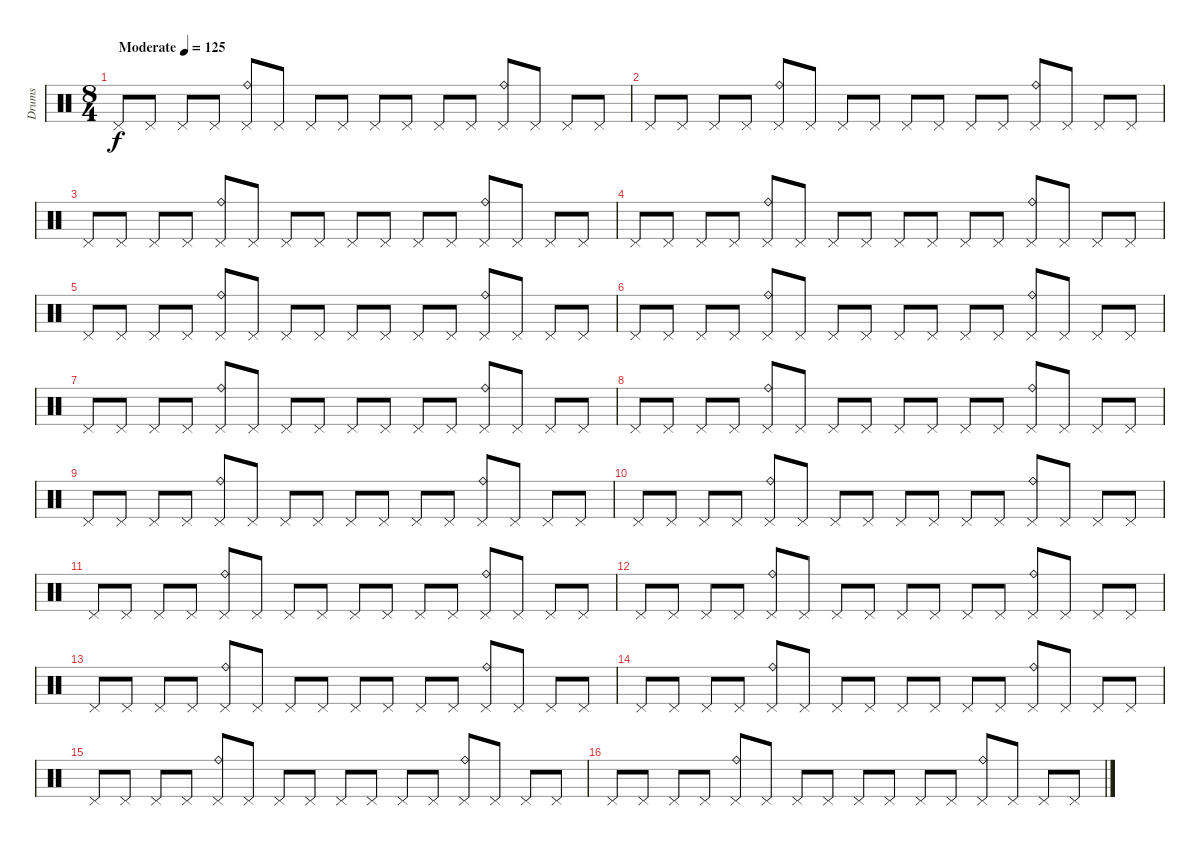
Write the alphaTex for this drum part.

\track ("Drums" "Drums") {instrument percussion}
\staff {score}
\articulation defaults
\ts (8 4)
\tempo (125 "Moderate")
\clef neutral
\ks c "Pedal Hi-Hat (hit)".8{dy f} "Pedal Hi-Hat (hit)".8 "Pedal Hi-Hat (hit)".8 "Pedal Hi-Hat (hit)".8
("Pedal Hi-Hat (hit)" "Ride (bell)").8 "Pedal Hi-Hat (hit)".8 "Pedal Hi-Hat (hit)".8 "Pedal Hi-Hat (hit)".8 "Pedal Hi-Hat (hit)".8 "Pedal Hi-Hat (hit)".8 "Pedal Hi-Hat (hit)".8 "Pedal Hi-Hat (hit)".8 ("Pedal Hi-Hat (hit)" "Ride (bell)").8 "Pedal Hi-Hat (hit)".8 "Pedal Hi-Hat (hit)".8 "Pedal Hi-Hat (hit)".8 |
"Pedal Hi-Hat (hit)".8 "Pedal Hi-Hat (hit)".8 "Pedal Hi-Hat (hit)".8 "Pedal Hi-Hat (hit)".8 ("Pedal Hi-Hat (hit)" "Ride (bell)").8 "Pedal Hi-Hat (hit)".8 "Pedal Hi-Hat (hit)".8 "Pedal Hi-Hat (hit)".8 "Pedal Hi-Hat (hit)".8 "Pedal Hi-Hat (hit)".8 "Pedal Hi-Hat (hit)".8 "Pedal Hi-Hat (hit)".8 ("Pedal Hi-Hat (hit)" "Ride (bell)").8 "Pedal Hi-Hat (hit)".8 "Pedal Hi-Hat (hit)".8 "Pedal Hi-Hat (hit)".8 |
"Pedal Hi-Hat (hit)".8 "Pedal Hi-Hat (hit)".8 "Pedal Hi-Hat (hit)".8 "Pedal Hi-Hat (hit)".8 ("Pedal Hi-Hat (hit)" "Ride (bell)").8 "Pedal Hi-Hat (hit)".8 "Pedal Hi-Hat (hit)".8 "Pedal Hi-Hat (hit)".8 "Pedal Hi-Hat (hit)".8 "Pedal Hi-Hat (hit)".8 "Pedal Hi-Hat (hit)".8 "Pedal Hi-Hat (hit)".8 ("Pedal Hi-Hat (hit)" "Ride (bell)").8 "Pedal Hi-Hat (hit)".8 "Pedal Hi-Hat (hit)".8 "Pedal Hi-Hat (hit)".8 |
"Pedal Hi-Hat (hit)".8 "Pedal Hi-Hat (hit)".8 "Pedal Hi-Hat (hit)".8 "Pedal Hi-Hat (hit)".8 ("Pedal Hi-Hat (hit)" "Ride (bell)").8 "Pedal Hi-Hat (hit)".8 "Pedal Hi-Hat (hit)".8 "Pedal Hi-Hat (hit)".8 "Pedal Hi-Hat (hit)".8 "Pedal Hi-Hat (hit)".8 "Pedal Hi-Hat (hit)".8 "Pedal Hi-Hat (hit)".8 ("Pedal Hi-Hat (hit)" "Ride (bell)").8 "Pedal Hi-Hat (hit)".8 "Pedal Hi-Hat (hit)".8 "Pedal Hi-Hat (hit)".8 |
"Pedal Hi-Hat (hit)".8 "Pedal Hi-Hat (hit)".8 "Pedal Hi-Hat (hit)".8 "Pedal Hi-Hat (hit)".8 ("Pedal Hi-Hat (hit)" "Ride (bell)").8 "Pedal Hi-Hat (hit)".8 "Pedal Hi-Hat (hit)".8 "Pedal Hi-Hat (hit)".8 "Pedal Hi-Hat (hit)".8 "Pedal Hi-Hat (hit)".8 "Pedal Hi-Hat (hit)".8 "Pedal Hi-Hat (hit)".8 ("Pedal Hi-Hat (hit)" "Ride (bell)").8 "Pedal Hi-Hat (hit)".8 "Pedal Hi-Hat (hit)".8 "Pedal Hi-Hat (hit)".8 |
"Pedal Hi-Hat (hit)".8 "Pedal Hi-Hat (hit)".8 "Pedal Hi-Hat (hit)".8 "Pedal Hi-Hat (hit)".8 ("Pedal Hi-Hat (hit)" "Ride (bell)").8 "Pedal Hi-Hat (hit)".8 "Pedal Hi-Hat (hit)".8 "Pedal Hi-Hat (hit)".8 "Pedal Hi-Hat (hit)".8 "Pedal Hi-Hat (hit)".8 "Pedal Hi-Hat (hit)".8 "Pedal Hi-Hat (hit)".8 ("Pedal Hi-Hat (hit)" "Ride (bell)").8 "Pedal Hi-Hat (hit)".8 "Pedal Hi-Hat (hit)".8 "Pedal Hi-Hat (hit)".8 |
"Pedal Hi-Hat (hit)".8 "Pedal Hi-Hat (hit)".8 "Pedal Hi-Hat (hit)".8 "Pedal Hi-Hat (hit)".8 ("Pedal Hi-Hat (hit)" "Ride (bell)").8 "Pedal Hi-Hat (hit)".8 "Pedal Hi-Hat (hit)".8 "Pedal Hi-Hat (hit)".8 "Pedal Hi-Hat (hit)".8 "Pedal Hi-Hat (hit)".8 "Pedal Hi-Hat (hit)".8 "Pedal Hi-Hat (hit)".8 ("Pedal Hi-Hat (hit)" "Ride (bell)").8 "Pedal Hi-Hat (hit)".8 "Pedal Hi-Hat (hit)".8 "Pedal Hi-Hat (hit)".8 |
"Pedal Hi-Hat (hit)".8 "Pedal Hi-Hat (hit)".8 "Pedal Hi-Hat (hit)".8 "Pedal Hi-Hat (hit)".8 ("Pedal Hi-Hat (hit)" "Ride (bell)").8 "Pedal Hi-Hat (hit)".8 "Pedal Hi-Hat (hit)".8 "Pedal Hi-Hat (hit)".8 "Pedal Hi-Hat (hit)".8 "Pedal Hi-Hat (hit)".8 "Pedal Hi-Hat (hit)".8 "Pedal Hi-Hat (hit)".8 ("Pedal Hi-Hat (hit)" "Ride (bell)").8 "Pedal Hi-Hat (hit)".8 "Pedal Hi-Hat (hit)".8 "Pedal Hi-Hat (hit)".8 |
"Pedal Hi-Hat (hit)".8 "Pedal Hi-Hat (hit)".8 "Pedal Hi-Hat (hit)".8 "Pedal Hi-Hat (hit)".8 ("Pedal Hi-Hat (hit)" "Ride (bell)").8 "Pedal Hi-Hat (hit)".8 "Pedal Hi-Hat (hit)".8 "Pedal Hi-Hat (hit)".8 "Pedal Hi-Hat (hit)".8 "Pedal Hi-Hat (hit)".8 "Pedal Hi-Hat (hit)".8 "Pedal Hi-Hat (hit)".8 ("Pedal Hi-Hat (hit)" "Ride (bell)").8 "Pedal Hi-Hat (hit)".8 "Pedal Hi-Hat (hit)".8 "Pedal Hi-Hat (hit)".8 |
"Pedal Hi-Hat (hit)".8 "Pedal Hi-Hat (hit)".8 "Pedal Hi-Hat (hit)".8 "Pedal Hi-Hat (hit)".8 ("Pedal Hi-Hat (hit)" "Ride (bell)").8 "Pedal Hi-Hat (hit)".8 "Pedal Hi-Hat (hit)".8 "Pedal Hi-Hat (hit)".8 "Pedal Hi-Hat (hit)".8 "Pedal Hi-Hat (hit)".8 "Pedal Hi-Hat (hit)".8 "Pedal Hi-Hat (hit)".8 ("Pedal Hi-Hat (hit)" "Ride (bell)").8 "Pedal Hi-Hat (hit)".8 "Pedal Hi-Hat (hit)".8 "Pedal Hi-Hat (hit)".8 |
"Pedal Hi-Hat (hit)".8 "Pedal Hi-Hat (hit)".8 "Pedal Hi-Hat (hit)".8 "Pedal Hi-Hat (hit)".8 ("Pedal Hi-Hat (hit)" "Ride (bell)").8 "Pedal Hi-Hat (hit)".8 "Pedal Hi-Hat (hit)".8 "Pedal Hi-Hat (hit)".8 "Pedal Hi-Hat (hit)".8 "Pedal Hi-Hat (hit)".8 "Pedal Hi-Hat (hit)".8 "Pedal Hi-Hat (hit)".8 ("Pedal Hi-Hat (hit)" "Ride (bell)").8 "Pedal Hi-Hat (hit)".8 "Pedal Hi-Hat (hit)".8 "Pedal Hi-Hat (hit)".8 |
"Pedal Hi-Hat (hit)".8 "Pedal Hi-Hat (hit)".8 "Pedal Hi-Hat (hit)".8 "Pedal Hi-Hat (hit)".8 ("Pedal Hi-Hat (hit)" "Ride (bell)").8 "Pedal Hi-Hat (hit)".8 "Pedal Hi-Hat (hit)".8 "Pedal Hi-Hat (hit)".8 "Pedal Hi-Hat (hit)".8 "Pedal Hi-Hat (hit)".8 "Pedal Hi-Hat (hit)".8 "Pedal Hi-Hat (hit)".8 ("Pedal Hi-Hat (hit)" "Ride (bell)").8 "Pedal Hi-Hat (hit)".8 "Pedal Hi-Hat (hit)".8 "Pedal Hi-Hat (hit)".8 |
"Pedal Hi-Hat (hit)".8 "Pedal Hi-Hat (hit)".8 "Pedal Hi-Hat (hit)".8 "Pedal Hi-Hat (hit)".8 ("Pedal Hi-Hat (hit)" "Ride (bell)").8 "Pedal Hi-Hat (hit)".8 "Pedal Hi-Hat (hit)".8 "Pedal Hi-Hat (hit)".8 "Pedal Hi-Hat (hit)".8 "Pedal Hi-Hat (hit)".8 "Pedal Hi-Hat (hit)".8 "Pedal Hi-Hat (hit)".8 ("Pedal Hi-Hat (hit)" "Ride (bell)").8 "Pedal Hi-Hat (hit)".8 "Pedal Hi-Hat (hit)".8 "Pedal Hi-Hat (hit)".8 |
"Pedal Hi-Hat (hit)".8 "Pedal Hi-Hat (hit)".8 "Pedal Hi-Hat (hit)".8 "Pedal Hi-Hat (hit)".8 ("Pedal Hi-Hat (hit)" "Ride (bell)").8 "Pedal Hi-Hat (hit)".8 "Pedal Hi-Hat (hit)".8 "Pedal Hi-Hat (hit)".8 "Pedal Hi-Hat (hit)".8 "Pedal Hi-Hat (hit)".8 "Pedal Hi-Hat (hit)".8 "Pedal Hi-Hat (hit)".8 ("Pedal Hi-Hat (hit)" "Ride (bell)").8 "Pedal Hi-Hat (hit)".8 "Pedal Hi-Hat (hit)".8 "Pedal Hi-Hat (hit)".8 |
"Pedal Hi-Hat (hit)".8 "Pedal Hi-Hat (hit)".8 "Pedal Hi-Hat (hit)".8 "Pedal Hi-Hat (hit)".8 ("Pedal Hi-Hat (hit)" "Ride (bell)").8 "Pedal Hi-Hat (hit)".8 "Pedal Hi-Hat (hit)".8 "Pedal Hi-Hat (hit)".8 "Pedal Hi-Hat (hit)".8 "Pedal Hi-Hat (hit)".8 "Pedal Hi-Hat (hit)".8 "Pedal Hi-Hat (hit)".8 ("Pedal Hi-Hat (hit)" "Ride (bell)").8 "Pedal Hi-Hat (hit)".8 "Pedal Hi-Hat (hit)".8 "Pedal Hi-Hat (hit)".8 |
"Pedal Hi-Hat (hit)".8 "Pedal Hi-Hat (hit)".8 "Pedal Hi-Hat (hit)".8 "Pedal Hi-Hat (hit)".8 ("Pedal Hi-Hat (hit)" "Ride (bell)").8 "Pedal Hi-Hat (hit)".8 "Pedal Hi-Hat (hit)".8 "Pedal Hi-Hat (hit)".8 "Pedal Hi-Hat (hit)".8 "Pedal Hi-Hat (hit)".8 "Pedal Hi-Hat (hit)".8 "Pedal Hi-Hat (hit)".8 ("Pedal Hi-Hat (hit)" "Ride (bell)").8 "Pedal Hi-Hat (hit)".8 "Pedal Hi-Hat (hit)".8 "Pedal Hi-Hat (hit)".8
